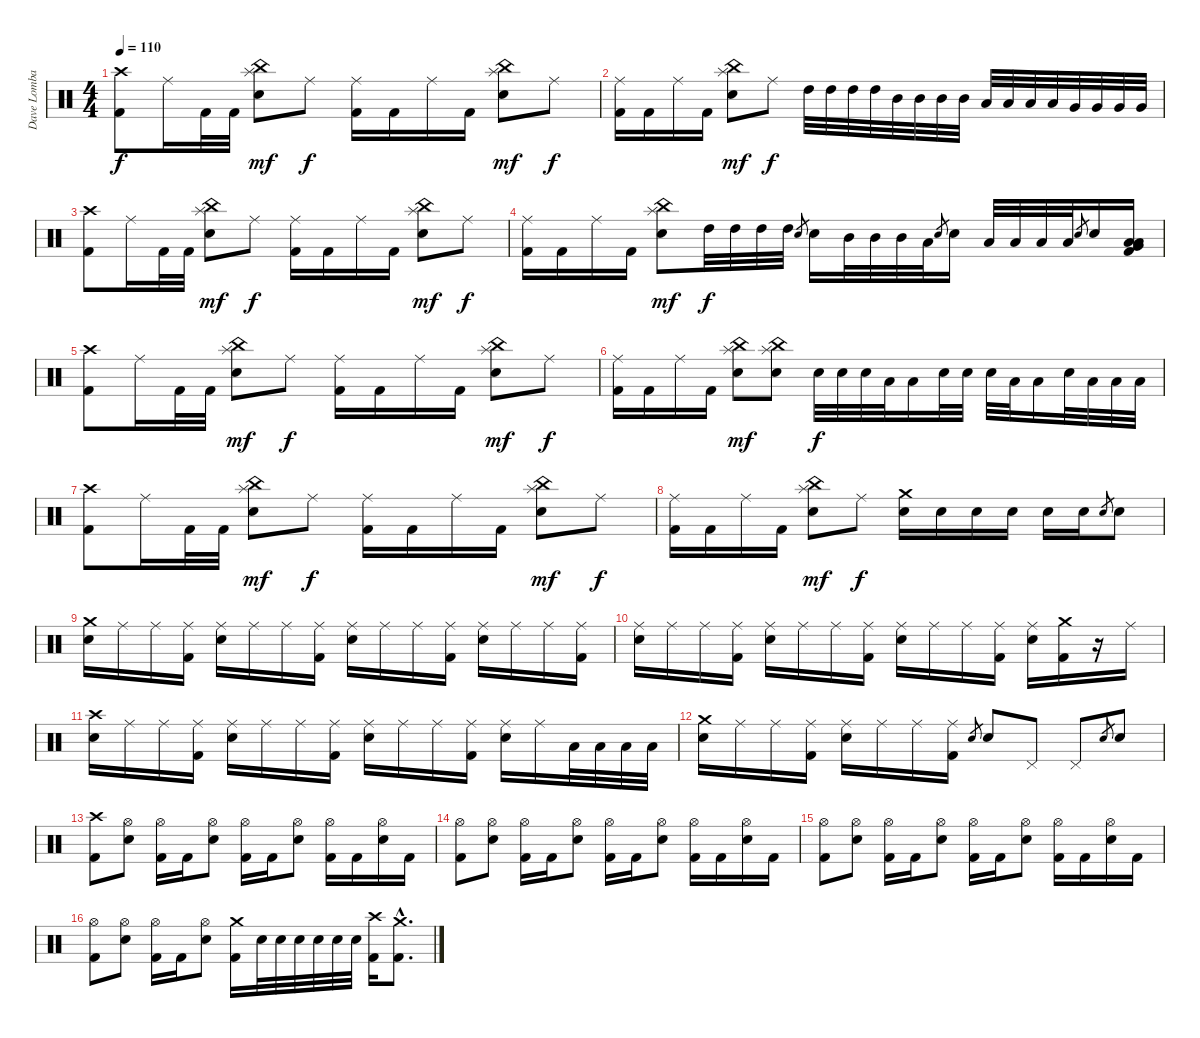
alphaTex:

\track ("Dave Lombardo" "Dave Lomba") {instrument percussion}
\staff {score}
\articulation defaults
\ts (4 4)
\tempo 110
\clef neutral
\ks c
("Crash high (hit)" "Kick (hit) 2").8{dy f} "Ride (middle)".16 "Kick (hit) 2".32 "Kick (hit) 2".32 ("China (hit)" "Splash (hit)" "Electric Snare (hit)").8{dy mf} "Ride (middle)".8{dy f} ("Kick (hit) 2" "Ride (middle)").16 "Kick (hit) 2".16 "Ride (middle)".16 "Kick (hit) 2".16 ("China (hit)" "Splash (hit)" "Electric Snare (hit)").8{dy mf} "Ride (middle)".8{dy f} |
("Kick (hit) 2" "Ride (middle)").16 "Kick (hit) 2".16 "Ride (middle)".16 "Kick (hit) 2".16 ("China (hit)" "Splash (hit)" "Electric Snare (hit)").8{dy mf} "Ride (middle)".8{dy f} "High Tom (hit)".32 "High Tom (hit)".32 "High Tom (hit)".32 "High Tom (hit)".32 "Mid Tom (hit)".32 "Mid Tom (hit)".32 "Mid Tom (hit)".32 "Mid Tom (hit)".32 "Low Tom (hit)".32 "Low Tom (hit)".32 "Low Tom (hit)".32 "Low Tom (hit)".32 "Very Low Tom (hit)".32 "Very Low Tom (hit)".32 "Very Low Tom (hit)".32 "Very Low Tom (hit)".32 |
("Crash high (hit)" "Kick (hit) 2").8 "Ride (middle)".16 "Kick (hit) 2".32 "Kick (hit) 2".32 ("China (hit)" "Splash (hit)" "Electric Snare (hit)").8{dy mf} "Ride (middle)".8{dy f} ("Kick (hit) 2" "Ride (middle)").16 "Kick (hit) 2".16 "Ride (middle)".16 "Kick (hit) 2".16 ("China (hit)" "Splash (hit)" "Electric Snare (hit)").8{dy mf} "Ride (middle)".8{dy f} |
("Kick (hit) 2" "Ride (middle)").16 "Kick (hit) 2".16 "Ride (middle)".16 "Kick (hit) 2".16 ("China (hit)" "Splash (hit)" "Electric Snare (hit)").8{dy mf} "High Tom (hit)".32{dy f} "High Tom (hit)".32 "High Tom (hit)".32 "High Tom (hit)".32 "Electric Snare (hit)".8{gr} "Electric Snare (hit)".16 "Mid Tom (hit)".32 "Mid Tom (hit)".32 "Mid Tom (hit)".32 "Low Tom (hit)".32 "Electric Snare (hit)".8{gr} "Electric Snare (hit)".16 "Low Tom (hit)".32 "Low Tom (hit)".32 "Low Tom (hit)".32 "Low Tom (hit)".32 "Electric Snare (hit)".8{gr} "Electric Snare (hit)".16 ("Very Low Tom (hit)" "Low Floor Tom (hit)" "Kick (hit) 2" "Low Tom (hit)").16 |
("Crash high (hit)" "Kick (hit) 2").8 "Ride (middle)".16 "Kick (hit) 2".32 "Kick (hit) 2".32 ("China (hit)" "Splash (hit)" "Electric Snare (hit)").8{dy mf} "Ride (middle)".8{dy f} ("Kick (hit) 2" "Ride (middle)").16 "Kick (hit) 2".16 "Ride (middle)".16 "Kick (hit) 2".16 ("China (hit)" "Splash (hit)" "Electric Snare (hit)").8{dy mf} "Ride (middle)".8{dy f} |
("Kick (hit) 2" "Ride (middle)").16 "Kick (hit) 2".16 "Ride (middle)".16 "Kick (hit) 2".16 ("China (hit)" "Splash (hit)" "Electric Snare (hit)").8{dy mf} ("China (hit)" "Splash (hit)" "Electric Snare (hit)").8 "Electric Snare (hit)".32{dy f} "Electric Snare (hit)".32 "Electric Snare (hit)".32 "Low Tom (hit)".32 "Low Tom (hit)".16 "Electric Snare (hit)".32 "Electric Snare (hit)".32 "Electric Snare (hit)".32 "Low Tom (hit)".32 "Low Tom (hit)".16 "Electric Snare (hit)".32 "Low Tom (hit)".32 "Low Tom (hit)".32 "Low Tom (hit)".32 |
("Crash high (hit)" "Kick (hit) 2").8 "Ride (middle)".16 "Kick (hit) 2".32 "Kick (hit) 2".32 ("China (hit)" "Splash (hit)" "Electric Snare (hit)").8{dy mf} "Ride (middle)".8{dy f} ("Kick (hit) 2" "Ride (middle)").16 "Kick (hit) 2".16 "Ride (middle)".16 "Kick (hit) 2".16 ("China (hit)" "Splash (hit)" "Electric Snare (hit)").8{dy mf} "Ride (middle)".8{dy f} |
("Kick (hit) 2" "Ride (middle)").16 "Kick (hit) 2".16 "Ride (middle)".16 "Kick (hit) 2".16 ("China (hit)" "Splash (hit)" "Electric Snare (hit)").8{dy mf} "Ride (middle)".8{dy f} ("Crash medium (hit)" "Electric Snare (hit)").16 "Electric Snare (hit)".16 "Electric Snare (hit)".16 "Electric Snare (hit)".16 "Electric Snare (hit)".16 "Electric Snare (hit)".16 "Electric Snare (hit)".8{gr} "Electric Snare (hit)".8 |
("Crash medium (hit)" "Electric Snare (hit)").16 "Ride (middle)".16 "Ride (middle)".16 ("Ride (middle)" "Kick (hit) 2").16 ("Ride (middle)" "Electric Snare (hit)").16 "Ride (middle)".16 "Ride (middle)".16 ("Ride (middle)" "Kick (hit) 2").16 ("Ride (middle)" "Electric Snare (hit)").16 "Ride (middle)".16 "Ride (middle)".16 ("Ride (middle)" "Kick (hit) 2").16 ("Ride (middle)" "Electric Snare (hit)").16 "Ride (middle)".16 "Ride (middle)".16 ("Ride (middle)" "Kick (hit) 2").16 |
("Ride (middle)" "Electric Snare (hit)").16 "Ride (middle)".16 "Ride (middle)".16 ("Ride (middle)" "Kick (hit) 2").16 ("Ride (middle)" "Electric Snare (hit)").16 "Ride (middle)".16 "Ride (middle)".16 ("Ride (middle)" "Kick (hit) 2").16 ("Ride (middle)" "Electric Snare (hit)").16 "Ride (middle)".16 "Ride (middle)".16 ("Ride (middle)" "Kick (hit) 2").16 ("Ride (middle)" "Electric Snare (hit)").16 ("Crash medium (hit)" "Kick (hit) 2").16 r.16 "Ride (middle)".16 |
("Crash high (hit)" "Electric Snare (hit)").16 "Ride (middle)".16 "Ride (middle)".16 ("Ride (middle)" "Kick (hit) 2").16 ("Ride (middle)" "Electric Snare (hit)").16 "Ride (middle)".16 "Ride (middle)".16 ("Ride (middle)" "Kick (hit) 2").16 ("Ride (middle)" "Electric Snare (hit)").16 "Ride (middle)".16 "Ride (middle)".16 ("Ride (middle)" "Kick (hit) 2").16 ("Ride (middle)" "Electric Snare (hit)").16 "Ride (middle)".16 "Low Tom (hit)".32 "Low Tom (hit)".32 "Low Tom (hit)".32 "Low Tom (hit)".32 |
("Crash medium (hit)" "Electric Snare (hit)").16 "Ride (middle)".16 "Ride (middle)".16 ("Ride (middle)" "Kick (hit) 2").16 ("Ride (middle)" "Electric Snare (hit)").16 "Ride (middle)".16 "Ride (middle)".16 ("Ride (middle)" "Kick (hit) 2").16 "Electric Snare (hit)".8{gr} "Electric Snare (hit)".8 "Pedal Hi-Hat (hit)".8 "Pedal Hi-Hat (hit)".8 "Electric Snare (hit)".8{gr} "Electric Snare (hit)".8 |
("Crash high (hit)" "Kick (hit) 2").8 ("Electric Snare (hit)" "Hi-Hat (open)").8 ("Kick (hit) 2" "Hi-Hat (open)").16 "Kick (hit) 2".16 ("Electric Snare (hit)" "Hi-Hat (open)").8 ("Kick (hit) 2" "Hi-Hat (open)").16 "Kick (hit) 2".16 ("Electric Snare (hit)" "Hi-Hat (open)").8 ("Kick (hit) 2" "Hi-Hat (open)").16 "Kick (hit) 2".16 ("Electric Snare (hit)" "Hi-Hat (open)").16 "Kick (hit) 2".16 |
("Hi-Hat (open)" "Kick (hit) 2").8 ("Electric Snare (hit)" "Hi-Hat (open)").8 ("Kick (hit) 2" "Hi-Hat (open)").16 "Kick (hit) 2".16 ("Electric Snare (hit)" "Hi-Hat (open)").8 ("Kick (hit) 2" "Hi-Hat (open)").16 "Kick (hit) 2".16 ("Electric Snare (hit)" "Hi-Hat (open)").8 ("Kick (hit) 2" "Hi-Hat (open)").16 "Kick (hit) 2".16 ("Electric Snare (hit)" "Hi-Hat (open)").16 "Kick (hit) 2".16 |
("Hi-Hat (open)" "Kick (hit) 2").8 ("Electric Snare (hit)" "Hi-Hat (open)").8 ("Kick (hit) 2" "Hi-Hat (open)").16 "Kick (hit) 2".16 ("Electric Snare (hit)" "Hi-Hat (open)").8 ("Kick (hit) 2" "Hi-Hat (open)").16 "Kick (hit) 2".16 ("Electric Snare (hit)" "Hi-Hat (open)").8 ("Kick (hit) 2" "Hi-Hat (open)").16 "Kick (hit) 2".16 ("Electric Snare (hit)" "Hi-Hat (open)").16 "Kick (hit) 2".16 |
("Hi-Hat (open)" "Kick (hit) 2").8 ("Electric Snare (hit)" "Hi-Hat (open)").8 ("Kick (hit) 2" "Hi-Hat (open)").16 "Kick (hit) 2".16 ("Electric Snare (hit)" "Hi-Hat (open)").8 ("Kick (hit) 2" "Crash medium (hit)").16 "Electric Snare (hit)".32 "Electric Snare (hit)".32 "Electric Snare (hit)".32 "Electric Snare (hit)".32 "Electric Snare (hit)".32 "Electric Snare (hit)".32 ("Crash high (hit)" "Kick (hit) 2").16 ("Crash medium (hit)"{hac} "Kick (hit) 2"{hac}).8{d}
